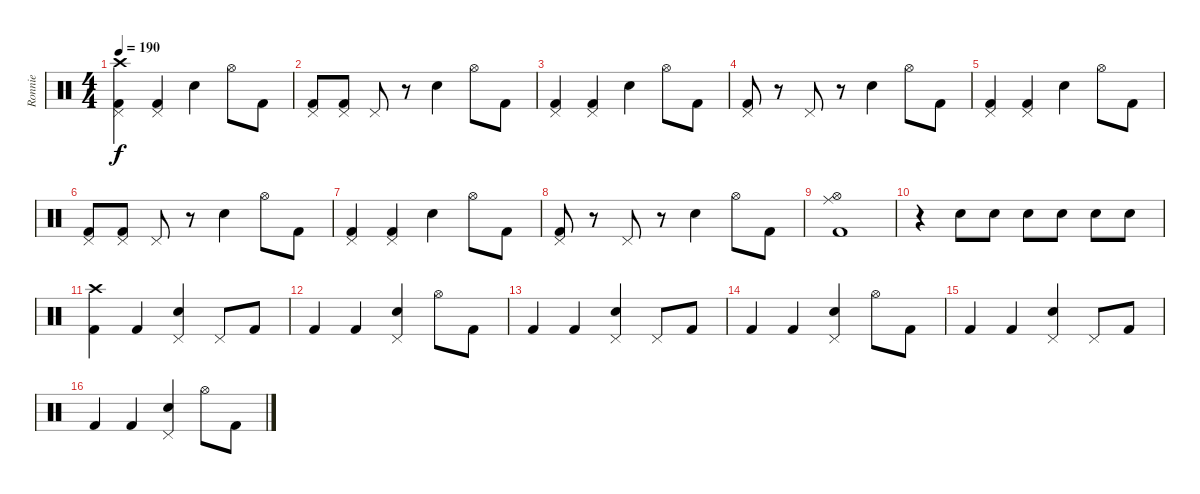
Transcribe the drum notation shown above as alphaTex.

\track ("Ronnie" "Ronnie") {instrument percussion}
\staff {score}
\articulation defaults
\ts (4 4)
\tempo 190
\clef neutral
\ks c
("Pedal Hi-Hat (hit)" "Kick (hit) 2" "Crash high (hit)").4{dy f} ("Pedal Hi-Hat (hit)" "Kick (hit) 2").4 "Electric Snare (hit)".4 "Hi-Hat (open)".8 "Kick (hit) 2".8 |
("Pedal Hi-Hat (hit)" "Kick (hit) 2").8 ("Pedal Hi-Hat (hit)" "Kick (hit) 2").8 "Pedal Hi-Hat (hit)".8 r.8 "Electric Snare (hit)".4 "Hi-Hat (open)".8 "Kick (hit) 2".8 |
("Pedal Hi-Hat (hit)" "Kick (hit) 2").4 ("Pedal Hi-Hat (hit)" "Kick (hit) 2").4 "Electric Snare (hit)".4 "Hi-Hat (open)".8 "Kick (hit) 2".8 |
("Pedal Hi-Hat (hit)" "Kick (hit) 2").8 r.8 "Pedal Hi-Hat (hit)".8 r.8 "Electric Snare (hit)".4 "Hi-Hat (open)".8 "Kick (hit) 2".8 |
("Pedal Hi-Hat (hit)" "Kick (hit) 2").4 ("Pedal Hi-Hat (hit)" "Kick (hit) 2").4 "Electric Snare (hit)".4 "Hi-Hat (open)".8 "Kick (hit) 2".8 |
("Pedal Hi-Hat (hit)" "Kick (hit) 2").8 ("Pedal Hi-Hat (hit)" "Kick (hit) 2").8 "Pedal Hi-Hat (hit)".8 r.8 "Electric Snare (hit)".4 "Hi-Hat (open)".8 "Kick (hit) 2".8 |
("Pedal Hi-Hat (hit)" "Kick (hit) 2").4 ("Pedal Hi-Hat (hit)" "Kick (hit) 2").4 "Electric Snare (hit)".4 "Hi-Hat (open)".8 "Kick (hit) 2".8 |
("Pedal Hi-Hat (hit)" "Kick (hit) 2").8 r.8 "Pedal Hi-Hat (hit)".8 r.8 "Electric Snare (hit)".4 "Hi-Hat (open)".8 "Kick (hit) 2".8 |
("Kick (hit) 2" "Hi-Hat (open)" "Ride (middle)").1 |
r.4 "Electric Snare (hit)".8 "Electric Snare (hit)".8 "Electric Snare (hit)".8 "Electric Snare (hit)".8 "Electric Snare (hit)".8 "Electric Snare (hit)".8 |
("Crash high (hit)" "Kick (hit) 2").4 "Kick (hit) 2".4 ("Electric Snare (hit)" "Pedal Hi-Hat (hit)").4 "Pedal Hi-Hat (hit)".8 "Kick (hit) 2".8 |
"Kick (hit) 2".4 "Kick (hit) 2".4 ("Electric Snare (hit)" "Pedal Hi-Hat (hit)").4 "Hi-Hat (open)".8 "Kick (hit) 2".8 |
"Kick (hit) 2".4 "Kick (hit) 2".4 ("Electric Snare (hit)" "Pedal Hi-Hat (hit)").4 "Pedal Hi-Hat (hit)".8 "Kick (hit) 2".8 |
"Kick (hit) 2".4 "Kick (hit) 2".4 ("Electric Snare (hit)" "Pedal Hi-Hat (hit)").4 "Hi-Hat (open)".8 "Kick (hit) 2".8 |
"Kick (hit) 2".4 "Kick (hit) 2".4 ("Electric Snare (hit)" "Pedal Hi-Hat (hit)").4 "Pedal Hi-Hat (hit)".8 "Kick (hit) 2".8 |
"Kick (hit) 2".4 "Kick (hit) 2".4 ("Electric Snare (hit)" "Pedal Hi-Hat (hit)").4 "Hi-Hat (open)".8 "Kick (hit) 2".8
